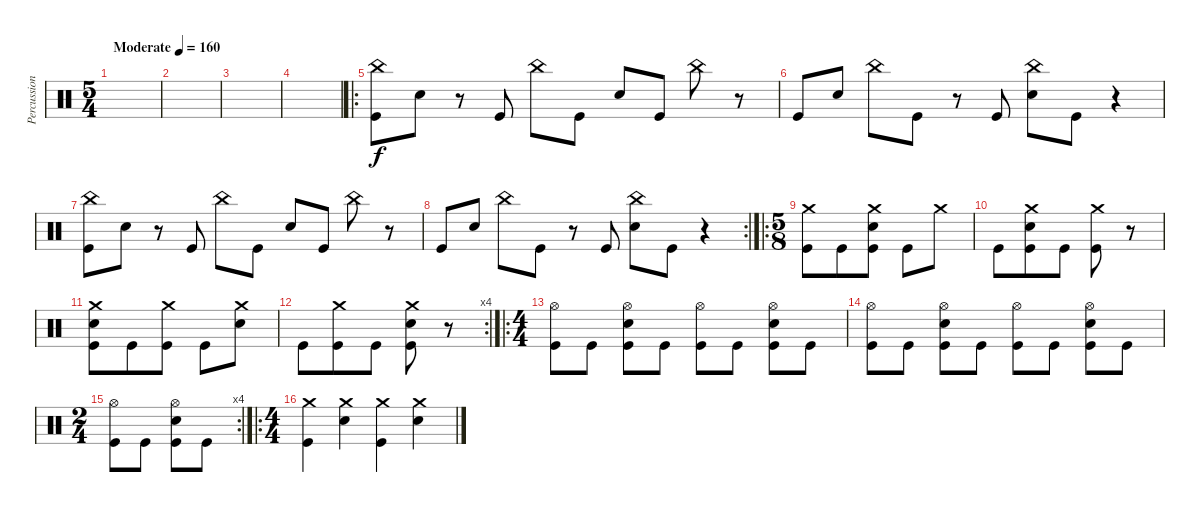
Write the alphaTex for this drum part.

\track ("Percussion" "Percussion") {instrument percussion}
\staff {score}
\articulation defaults
\ts (5 4)
\tempo (160 "Moderate")
\clef neutral
\ks c
|
|
|
|
\ro
("China (hit)" "Kick (hit)").8 "Snare (hit) 2".8 r.8 "Kick (hit)".8 "China (hit)".8 "Kick (hit)".8 "Snare (hit) 2".8 "Kick (hit)".8 "China (hit)".8 r.8 |
"Kick (hit)".8 "Snare (hit) 2".8 "China (hit)".8 "Kick (hit)".8 r.8 "Kick (hit)".8 ("China (hit)" "Snare (hit) 2").8 "Kick (hit)".8 r.4 |
("China (hit)" "Kick (hit)").8 "Snare (hit) 2".8 r.8 "Kick (hit)".8 "China (hit)".8 "Kick (hit)".8 "Snare (hit) 2".8 "Kick (hit)".8 "China (hit)".8 r.8 |
\rc 2 "Kick (hit)".8 "Snare (hit) 2".8 "China (hit)".8 "Kick (hit)".8
r.8 "Kick (hit)".8 ("China (hit)" "Snare (hit) 2").8 "Kick (hit)".8 r.4 |
\ro
\ts (5 8)
("Crash medium (hit)" "Kick (hit)").8 "Kick (hit)".8 ("Crash medium (hit)" "Snare (hit) 2" "Kick (hit)").8 "Kick (hit)".8 "Crash medium (hit)".8 |
"Kick (hit)".8 ("Crash medium (hit)" "Snare (hit) 2" "Kick (hit)").8 "Kick (hit)".8 ("Crash medium (hit)" "Kick (hit)").8 r.8 |
("Crash medium (hit)" "Snare (hit) 2" "Kick (hit)").8 "Kick (hit)".8 ("Crash medium (hit)" "Kick (hit)").8 "Kick (hit)".8 ("Crash medium (hit)" "Snare (hit) 2").8 |
\rc 4 "Kick (hit)".8
("Crash medium (hit)" "Kick (hit)").8 "Kick (hit)".8 ("Crash medium (hit)" "Snare (hit) 2" "Kick (hit)").8 r.8 |
\ro
\ts (4 4)
("Hi-Hat (open)" "Kick (hit)").8 "Kick (hit)".8 ("Hi-Hat (open)" "Snare (hit) 2" "Kick (hit)").8 "Kick (hit)".8 ("Hi-Hat (open)" "Kick (hit)").8 "Kick (hit)".8 ("Hi-Hat (open)" "Snare (hit) 2" "Kick (hit)").8 "Kick (hit)".8 |
("Hi-Hat (open)" "Kick (hit)").8 "Kick (hit)".8 ("Hi-Hat (open)" "Snare (hit) 2" "Kick (hit)").8 "Kick (hit)".8 ("Hi-Hat (open)" "Kick (hit)").8 "Kick (hit)".8 ("Hi-Hat (open)" "Snare (hit) 2" "Kick (hit)").8 "Kick (hit)".8 |
\rc 4
\ts (2 4)
("Hi-Hat (open)" "Kick (hit)").8 "Kick (hit)".8 ("Hi-Hat (open)" "Snare (hit) 2" "Kick (hit)").8 "Kick (hit)".8 |
\ro
\ts (4 4)
("Crash medium (hit)" "Kick (hit)").4 ("Crash medium (hit)" "Snare (hit) 2").4 ("Crash medium (hit)" "Kick (hit)").4 ("Crash medium (hit)" "Snare (hit) 2").4
